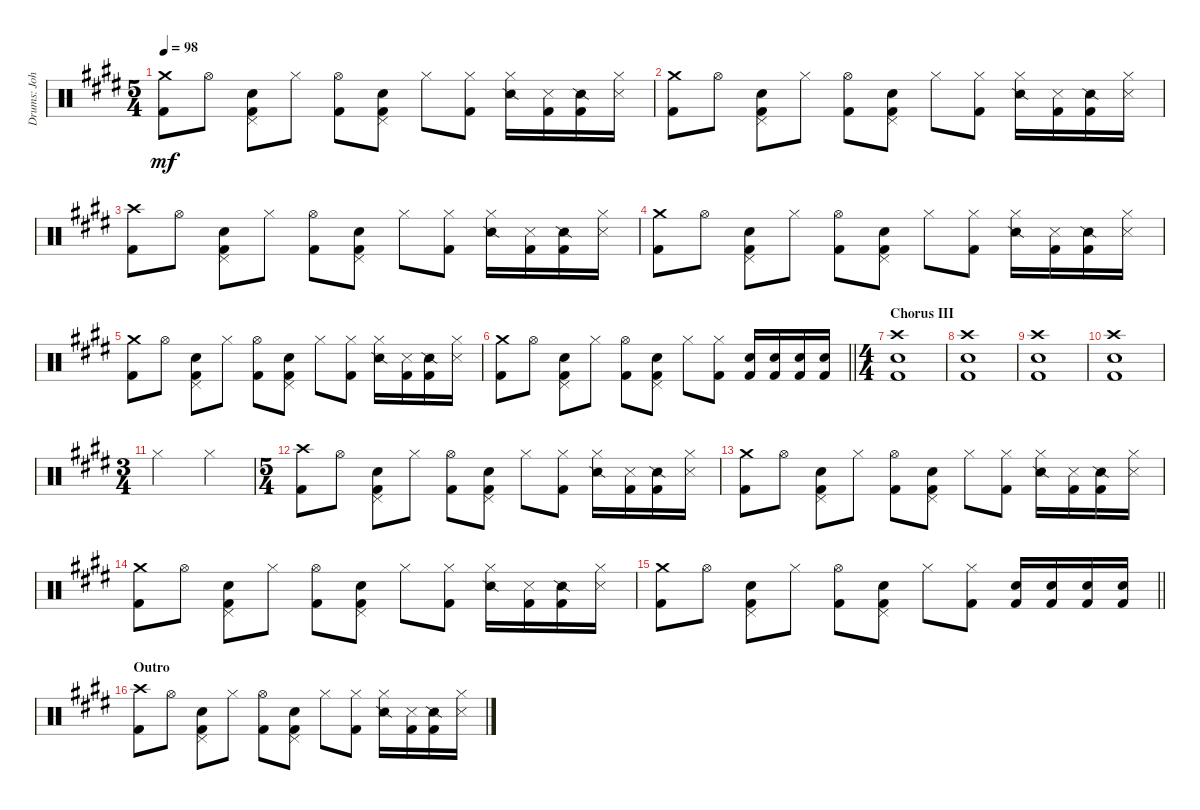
\track ("Drums: John" "Drums: Joh") {instrument percussion}
\staff {score}
\articulation defaults
\ts (5 4)
\tempo 98
\clef neutral
\ks e
("Crash medium (hit)" "Kick (hit) 2").8{dy mf} "Hi-Hat (open)".8 ("Pedal Hi-Hat (hit)" "Snare (hit) 2" "Kick (hit) 2").8 "Hi-Hat (closed)".8 ("Hi-Hat (open)" "Kick (hit) 2").8 ("Pedal Hi-Hat (hit)" "Snare (hit) 2" "Kick (hit) 2").8 "Hi-Hat (closed)".8 ("Hi-Hat (closed)" "Kick (hit) 2").8 ("Hi-Hat (closed)" "Snare (side stick) 2").16 ("Kick (hit) 2" "Snare (side stick) 3").16 ("Kick (hit) 2" "Snare (side stick) 2").16 ("Hi-Hat (closed)" "Snare (side stick) 3").16 |
("Crash medium (hit)" "Kick (hit) 2").8 "Hi-Hat (open)".8 ("Pedal Hi-Hat (hit)" "Snare (hit) 2" "Kick (hit) 2").8 "Hi-Hat (closed)".8 ("Hi-Hat (open)" "Kick (hit) 2").8 ("Pedal Hi-Hat (hit)" "Snare (hit) 2" "Kick (hit) 2").8 "Hi-Hat (closed)".8 ("Hi-Hat (closed)" "Kick (hit) 2").8 ("Hi-Hat (closed)" "Snare (side stick) 2").16 ("Kick (hit) 2" "Snare (side stick) 3").16 ("Kick (hit) 2" "Snare (side stick) 2").16 ("Hi-Hat (closed)" "Snare (side stick) 3").16 |
("Crash high (hit)" "Kick (hit) 2").8 "Hi-Hat (open)".8 ("Pedal Hi-Hat (hit)" "Snare (hit) 2" "Kick (hit) 2").8 "Hi-Hat (closed)".8 ("Hi-Hat (open)" "Kick (hit) 2").8 ("Pedal Hi-Hat (hit)" "Snare (hit) 2" "Kick (hit) 2").8 "Hi-Hat (closed)".8 ("Hi-Hat (closed)" "Kick (hit) 2").8 ("Hi-Hat (closed)" "Snare (side stick) 2").16 ("Kick (hit) 2" "Snare (side stick) 3").16 ("Kick (hit) 2" "Snare (side stick) 2").16 ("Hi-Hat (closed)" "Snare (side stick) 3").16 |
("Crash medium (hit)" "Kick (hit) 2").8 "Hi-Hat (open)".8 ("Pedal Hi-Hat (hit)" "Snare (hit) 2" "Kick (hit) 2").8 "Hi-Hat (closed)".8 ("Hi-Hat (open)" "Kick (hit) 2").8 ("Pedal Hi-Hat (hit)" "Snare (hit) 2" "Kick (hit) 2").8 "Hi-Hat (closed)".8 ("Hi-Hat (closed)" "Kick (hit) 2").8 ("Hi-Hat (closed)" "Snare (side stick) 2").16 ("Kick (hit) 2" "Snare (side stick) 3").16 ("Kick (hit) 2" "Snare (side stick) 2").16 ("Hi-Hat (closed)" "Snare (side stick) 3").16 |
("Crash medium (hit)" "Kick (hit) 2").8 "Hi-Hat (open)".8 ("Pedal Hi-Hat (hit)" "Snare (hit) 2" "Kick (hit) 2").8 "Hi-Hat (closed)".8 ("Hi-Hat (open)" "Kick (hit) 2").8 ("Pedal Hi-Hat (hit)" "Snare (hit) 2" "Kick (hit) 2").8 "Hi-Hat (closed)".8 ("Hi-Hat (closed)" "Kick (hit) 2").8 ("Hi-Hat (closed)" "Snare (side stick) 2").16 ("Kick (hit) 2" "Snare (side stick) 3").16 ("Kick (hit) 2" "Snare (side stick) 2").16 ("Hi-Hat (closed)" "Snare (side stick) 3").16 |
\barLineRight lightlight
("Crash medium (hit)" "Kick (hit) 2").8 "Hi-Hat (open)".8 ("Pedal Hi-Hat (hit)" "Snare (hit) 2" "Kick (hit) 2").8 "Hi-Hat (closed)".8 ("Hi-Hat (open)" "Kick (hit) 2").8 ("Pedal Hi-Hat (hit)" "Snare (hit) 2" "Kick (hit) 2").8 "Hi-Hat (closed)".8 ("Hi-Hat (closed)" "Kick (hit) 2").8 ("Electric Snare (hit)" "Kick (hit) 2").16 ("Electric Snare (hit)" "Kick (hit) 2").16 ("Electric Snare (hit)" "Kick (hit) 2").16 ("Electric Snare (hit)" "Kick (hit) 2").16 |
\ts (4 4)
\section ("" "Chorus III")
("Crash high (hit)" "Snare (hit) 2" "Kick (hit) 2").1 |
("Crash high (hit)" "Snare (hit) 2" "Kick (hit) 2").1 |
("Crash high (hit)" "Snare (hit) 2" "Kick (hit) 2").1 |
("Crash high (hit)" "Snare (hit) 2" "Kick (hit) 2").1 |
\ts (3 4)
"Hi-Hat (closed)".2 "Hi-Hat (closed)".4 |
\ts (5 4)
("Crash high (hit)" "Kick (hit) 2").8 "Hi-Hat (open)".8 ("Pedal Hi-Hat (hit)" "Snare (hit) 2" "Kick (hit) 2").8 "Hi-Hat (closed)".8 ("Hi-Hat (open)" "Kick (hit) 2").8 ("Pedal Hi-Hat (hit)" "Snare (hit) 2" "Kick (hit) 2").8 "Hi-Hat (closed)".8 ("Hi-Hat (closed)" "Kick (hit) 2").8 ("Hi-Hat (closed)" "Snare (side stick) 2").16 ("Kick (hit) 2" "Snare (side stick) 3").16 ("Kick (hit) 2" "Snare (side stick) 2").16 ("Hi-Hat (closed)" "Snare (side stick) 3").16 |
("Crash medium (hit)" "Kick (hit) 2").8 "Hi-Hat (open)".8 ("Pedal Hi-Hat (hit)" "Snare (hit) 2" "Kick (hit) 2").8 "Hi-Hat (closed)".8 ("Hi-Hat (open)" "Kick (hit) 2").8 ("Pedal Hi-Hat (hit)" "Snare (hit) 2" "Kick (hit) 2").8 "Hi-Hat (closed)".8 ("Hi-Hat (closed)" "Kick (hit) 2").8 ("Hi-Hat (closed)" "Snare (side stick) 2").16 ("Kick (hit) 2" "Snare (side stick) 3").16 ("Kick (hit) 2" "Snare (side stick) 2").16 ("Hi-Hat (closed)" "Snare (side stick) 3").16 |
("Crash medium (hit)" "Kick (hit) 2").8 "Hi-Hat (open)".8 ("Pedal Hi-Hat (hit)" "Snare (hit) 2" "Kick (hit) 2").8 "Hi-Hat (closed)".8 ("Hi-Hat (open)" "Kick (hit) 2").8 ("Pedal Hi-Hat (hit)" "Snare (hit) 2" "Kick (hit) 2").8 "Hi-Hat (closed)".8 ("Hi-Hat (closed)" "Kick (hit) 2").8 ("Hi-Hat (closed)" "Snare (side stick) 2").16 ("Kick (hit) 2" "Snare (side stick) 3").16 ("Kick (hit) 2" "Snare (side stick) 2").16 ("Hi-Hat (closed)" "Snare (side stick) 3").16 |
\barLineRight lightlight
("Crash medium (hit)" "Kick (hit) 2").8 "Hi-Hat (open)".8 ("Pedal Hi-Hat (hit)" "Snare (hit) 2" "Kick (hit) 2").8 "Hi-Hat (closed)".8 ("Hi-Hat (open)" "Kick (hit) 2").8 ("Pedal Hi-Hat (hit)" "Snare (hit) 2" "Kick (hit) 2").8 "Hi-Hat (closed)".8 ("Hi-Hat (closed)" "Kick (hit) 2").8 ("Electric Snare (hit)" "Kick (hit) 2").16 ("Electric Snare (hit)" "Kick (hit) 2").16 ("Electric Snare (hit)" "Kick (hit) 2").16 ("Electric Snare (hit)" "Kick (hit) 2").16 |
\section ("" "Outro")
("Crash high (hit)" "Kick (hit) 2").8 "Hi-Hat (open)".8 ("Pedal Hi-Hat (hit)" "Snare (hit) 2" "Kick (hit) 2").8 "Hi-Hat (closed)".8 ("Hi-Hat (open)" "Kick (hit) 2").8 ("Pedal Hi-Hat (hit)" "Snare (hit) 2" "Kick (hit) 2").8 "Hi-Hat (closed)".8 ("Hi-Hat (closed)" "Kick (hit) 2").8 ("Hi-Hat (closed)" "Snare (side stick) 2").16 ("Kick (hit) 2" "Snare (side stick) 3").16 ("Kick (hit) 2" "Snare (side stick) 2").16 ("Hi-Hat (closed)" "Snare (side stick) 3").16
